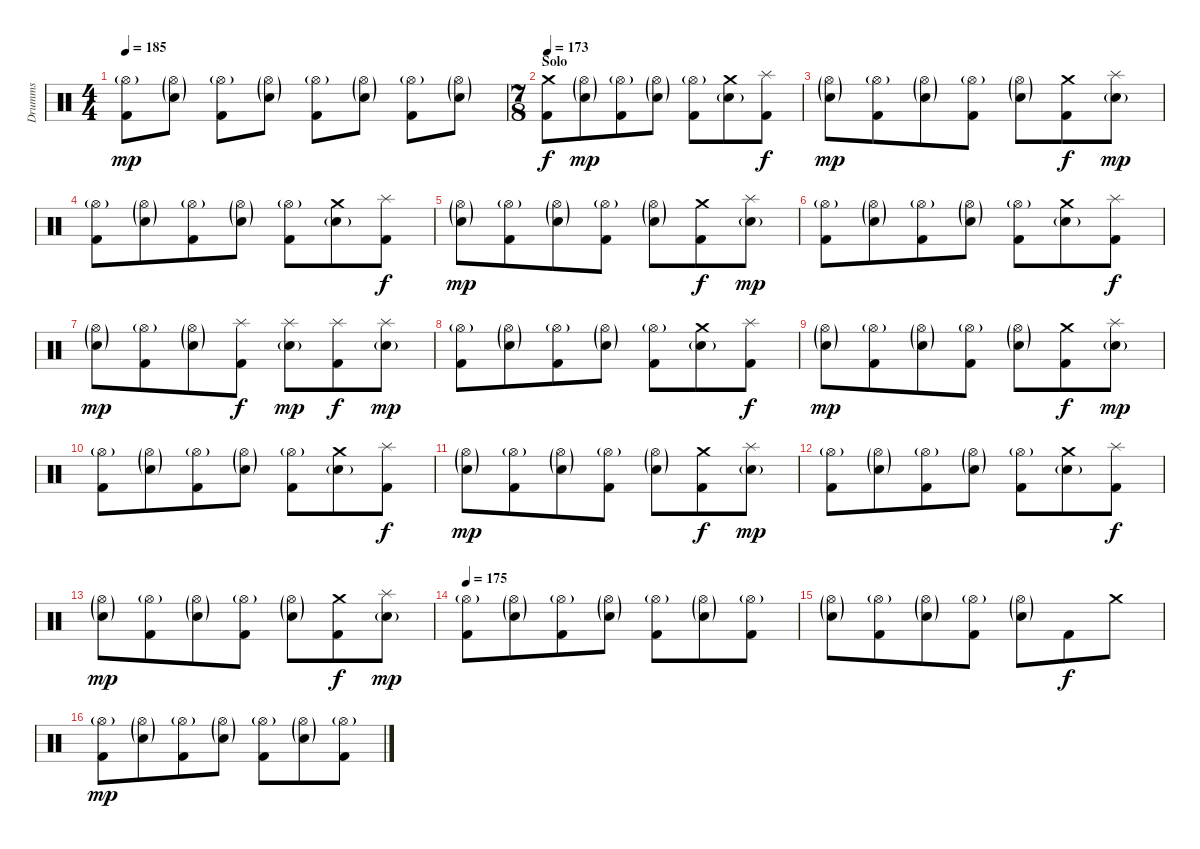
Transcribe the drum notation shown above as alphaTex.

\track ("Drumms" "Drumms") {instrument percussion}
\staff {score}
\articulation defaults
\ts (4 4)
\tempo 185
\clef neutral
\ks c
("Hi-Hat (open)"{g} "Kick (hit) 2").8{dy mp} ("Hi-Hat (open)"{g} "Snare (hit) 2"{g}).8 ("Hi-Hat (open)"{g} "Kick (hit) 2").8 ("Hi-Hat (open)"{g} "Snare (hit) 2"{g}).8 ("Hi-Hat (open)"{g} "Kick (hit) 2").8 ("Hi-Hat (open)"{g} "Snare (hit) 2"{g}).8 ("Hi-Hat (open)"{g} "Kick (hit) 2").8 ("Hi-Hat (open)"{g} "Snare (hit) 2"{g}).8 |
\ts (7 8)
\section ("" "Solo")
\tempo 173
("Crash medium (hit)" "Kick (hit) 2").8{dy f} ("Hi-Hat (open)"{g} "Snare (hit) 2"{g}).8{dy mp} ("Hi-Hat (open)"{g} "Kick (hit) 2").8 ("Hi-Hat (open)"{g} "Snare (hit) 2"{g}).8 ("Hi-Hat (open)"{g} "Kick (hit) 2").8 ("Crash medium (hit)" "Snare (hit) 2"{g}).8 ("Splash (hit)" "Kick (hit) 2").8{dy f} |
("Hi-Hat (open)"{g} "Snare (hit) 2"{g}).8{dy mp} ("Hi-Hat (open)"{g} "Kick (hit) 2").8 ("Hi-Hat (open)"{g} "Snare (hit) 2"{g}).8 ("Hi-Hat (open)"{g} "Kick (hit) 2").8 ("Hi-Hat (open)"{g} "Snare (hit) 2"{g}).8 ("Crash medium (hit)" "Kick (hit) 2").8{dy f} ("Splash (hit)" "Snare (hit) 2"{g}).8{dy mp} |
("Hi-Hat (open)"{g} "Kick (hit) 2").8 ("Hi-Hat (open)"{g} "Snare (hit) 2"{g}).8 ("Hi-Hat (open)"{g} "Kick (hit) 2").8 ("Hi-Hat (open)"{g} "Snare (hit) 2"{g}).8 ("Hi-Hat (open)"{g} "Kick (hit) 2").8 ("Crash medium (hit)" "Snare (hit) 2"{g}).8 ("Splash (hit)" "Kick (hit) 2").8{dy f} |
("Hi-Hat (open)"{g} "Snare (hit) 2"{g}).8{dy mp} ("Hi-Hat (open)"{g} "Kick (hit) 2").8 ("Hi-Hat (open)"{g} "Snare (hit) 2"{g}).8 ("Hi-Hat (open)"{g} "Kick (hit) 2").8 ("Hi-Hat (open)"{g} "Snare (hit) 2"{g}).8 ("Crash medium (hit)" "Kick (hit) 2").8{dy f} ("Splash (hit)" "Snare (hit) 2"{g}).8{dy mp} |
("Hi-Hat (open)"{g} "Kick (hit) 2").8 ("Hi-Hat (open)"{g} "Snare (hit) 2"{g}).8 ("Hi-Hat (open)"{g} "Kick (hit) 2").8 ("Hi-Hat (open)"{g} "Snare (hit) 2"{g}).8 ("Hi-Hat (open)"{g} "Kick (hit) 2").8 ("Crash medium (hit)" "Snare (hit) 2"{g}).8 ("Splash (hit)" "Kick (hit) 2").8{dy f} |
("Hi-Hat (open)"{g} "Snare (hit) 2"{g}).8{dy mp} ("Hi-Hat (open)"{g} "Kick (hit) 2").8 ("Hi-Hat (open)"{g} "Snare (hit) 2"{g}).8 ("Splash (hit)" "Kick (hit) 2").8{dy f} ("Splash (hit)" "Snare (hit) 2"{g}).8{dy mp} ("Splash (hit)" "Kick (hit) 2").8{dy f} ("Splash (hit)" "Snare (hit) 2"{g}).8{dy mp} |
("Hi-Hat (open)"{g} "Kick (hit) 2").8 ("Hi-Hat (open)"{g} "Snare (hit) 2"{g}).8 ("Hi-Hat (open)"{g} "Kick (hit) 2").8 ("Hi-Hat (open)"{g} "Snare (hit) 2"{g}).8 ("Hi-Hat (open)"{g} "Kick (hit) 2").8 ("Crash medium (hit)" "Snare (hit) 2"{g}).8 ("Splash (hit)" "Kick (hit) 2").8{dy f} |
("Hi-Hat (open)"{g} "Snare (hit) 2"{g}).8{dy mp} ("Hi-Hat (open)"{g} "Kick (hit) 2").8 ("Hi-Hat (open)"{g} "Snare (hit) 2"{g}).8 ("Hi-Hat (open)"{g} "Kick (hit) 2").8 ("Hi-Hat (open)"{g} "Snare (hit) 2"{g}).8 ("Crash medium (hit)" "Kick (hit) 2").8{dy f} ("Splash (hit)" "Snare (hit) 2"{g}).8{dy mp} |
("Hi-Hat (open)"{g} "Kick (hit) 2").8 ("Hi-Hat (open)"{g} "Snare (hit) 2"{g}).8 ("Hi-Hat (open)"{g} "Kick (hit) 2").8 ("Hi-Hat (open)"{g} "Snare (hit) 2"{g}).8 ("Hi-Hat (open)"{g} "Kick (hit) 2").8 ("Crash medium (hit)" "Snare (hit) 2"{g}).8 ("Splash (hit)" "Kick (hit) 2").8{dy f} |
("Hi-Hat (open)"{g} "Snare (hit) 2"{g}).8{dy mp} ("Hi-Hat (open)"{g} "Kick (hit) 2").8 ("Hi-Hat (open)"{g} "Snare (hit) 2"{g}).8 ("Hi-Hat (open)"{g} "Kick (hit) 2").8 ("Hi-Hat (open)"{g} "Snare (hit) 2"{g}).8 ("Crash medium (hit)" "Kick (hit) 2").8{dy f} ("Splash (hit)" "Snare (hit) 2"{g}).8{dy mp} |
("Hi-Hat (open)"{g} "Kick (hit) 2").8 ("Hi-Hat (open)"{g} "Snare (hit) 2"{g}).8 ("Hi-Hat (open)"{g} "Kick (hit) 2").8 ("Hi-Hat (open)"{g} "Snare (hit) 2"{g}).8 ("Hi-Hat (open)"{g} "Kick (hit) 2").8 ("Crash medium (hit)" "Snare (hit) 2"{g}).8 ("Splash (hit)" "Kick (hit) 2").8{dy f} |
("Hi-Hat (open)"{g} "Snare (hit) 2"{g}).8{dy mp} ("Hi-Hat (open)"{g} "Kick (hit) 2").8 ("Hi-Hat (open)"{g} "Snare (hit) 2"{g}).8 ("Hi-Hat (open)"{g} "Kick (hit) 2").8 ("Hi-Hat (open)"{g} "Snare (hit) 2"{g}).8 ("Crash medium (hit)" "Kick (hit) 2").8{dy f} ("Splash (hit)" "Snare (hit) 2"{g}).8{dy mp} |
\tempo 175
("Hi-Hat (open)"{g} "Kick (hit) 2").8 ("Hi-Hat (open)"{g} "Snare (hit) 2"{g}).8 ("Hi-Hat (open)"{g} "Kick (hit) 2").8 ("Hi-Hat (open)"{g} "Snare (hit) 2"{g}).8 ("Hi-Hat (open)"{g} "Kick (hit) 2").8 ("Hi-Hat (open)"{g} "Snare (hit) 2"{g}).8 ("Hi-Hat (open)"{g} "Kick (hit) 2").8 |
("Hi-Hat (open)"{g} "Snare (hit) 2"{g}).8 ("Hi-Hat (open)"{g} "Kick (hit) 2").8 ("Hi-Hat (open)"{g} "Snare (hit) 2"{g}).8 ("Hi-Hat (open)"{g} "Kick (hit) 2").8 ("Hi-Hat (open)"{g} "Snare (hit) 2"{g}).8 "Kick (hit) 2".8{dy f} "Crash medium (hit)".8 |
("Hi-Hat (open)"{g} "Kick (hit) 2").8{dy mp} ("Hi-Hat (open)"{g} "Snare (hit) 2"{g}).8 ("Hi-Hat (open)"{g} "Kick (hit) 2").8 ("Hi-Hat (open)"{g} "Snare (hit) 2"{g}).8 ("Hi-Hat (open)"{g} "Kick (hit) 2").8 ("Hi-Hat (open)"{g} "Snare (hit) 2"{g}).8 ("Hi-Hat (open)"{g} "Kick (hit) 2").8
